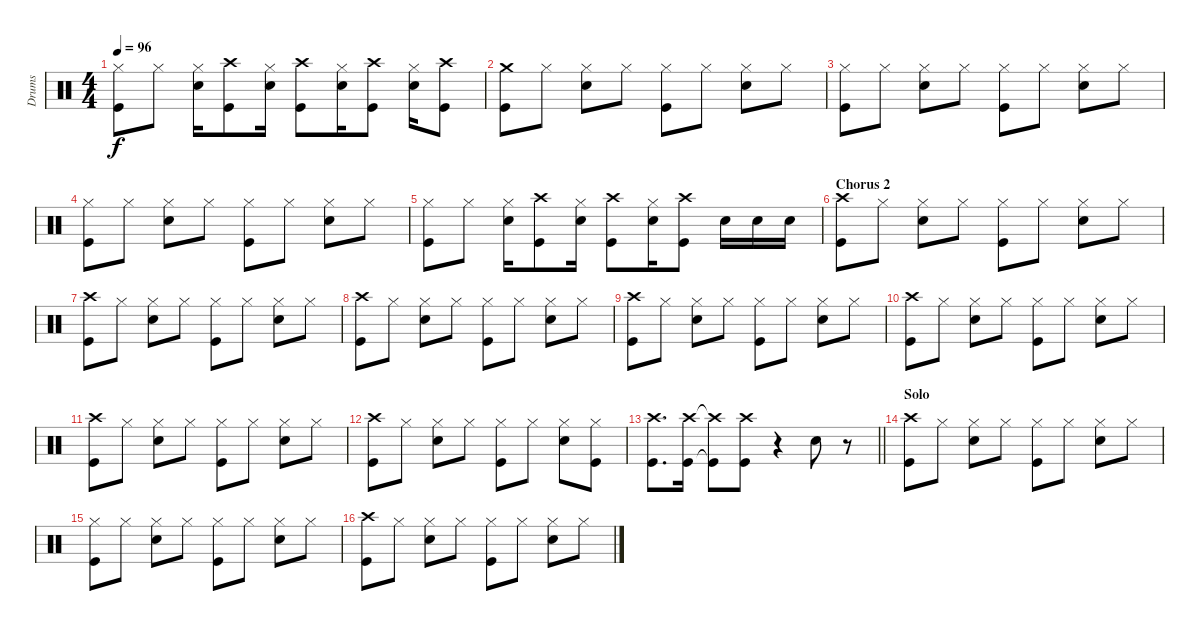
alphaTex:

\track ("Drums" "Drums") {instrument percussion}
\staff {score}
\articulation defaults
\ts (4 4)
\tempo 96
\clef neutral
\ks c
("Hi-Hat (closed)" "Kick (hit)").8{dy f} "Hi-Hat (closed)".8 ("Hi-Hat (closed)" "Electric Snare (hit)").16 ("Crash high (hit)" "Kick (hit)").8 ("Hi-Hat (closed)" "Electric Snare (hit)").16 ("Crash high (hit)" "Kick (hit)").8 ("Hi-Hat (closed)" "Electric Snare (hit)").16 ("Crash high (hit)" "Kick (hit)").8 ("Hi-Hat (closed)" "Electric Snare (hit)").16 ("Crash high (hit)" "Kick (hit)").8 |
("Crash medium (hit)" "Kick (hit)").8 "Hi-Hat (closed)".8 ("Hi-Hat (closed)" "Electric Snare (hit)").8 "Hi-Hat (closed)".8 ("Hi-Hat (closed)" "Kick (hit)").8 "Hi-Hat (closed)".8 ("Hi-Hat (closed)" "Electric Snare (hit)").8 "Hi-Hat (closed)".8 |
("Hi-Hat (closed)" "Kick (hit)").8 "Hi-Hat (closed)".8 ("Hi-Hat (closed)" "Electric Snare (hit)").8 "Hi-Hat (closed)".8 ("Hi-Hat (closed)" "Kick (hit)").8 "Hi-Hat (closed)".8 ("Hi-Hat (closed)" "Electric Snare (hit)").8 "Hi-Hat (closed)".8 |
("Hi-Hat (closed)" "Kick (hit)").8 "Hi-Hat (closed)".8 ("Hi-Hat (closed)" "Electric Snare (hit)").8 "Hi-Hat (closed)".8 ("Hi-Hat (closed)" "Kick (hit)").8 "Hi-Hat (closed)".8 ("Hi-Hat (closed)" "Electric Snare (hit)").8 "Hi-Hat (closed)".8 |
("Hi-Hat (closed)" "Kick (hit)").8 "Hi-Hat (closed)".8 ("Hi-Hat (closed)" "Electric Snare (hit)").16 ("Crash high (hit)" "Kick (hit)").8 ("Hi-Hat (closed)" "Electric Snare (hit)").16 ("Crash high (hit)" "Kick (hit)").8 ("Hi-Hat (closed)" "Electric Snare (hit)").16 ("Crash high (hit)" "Kick (hit)").8 "Electric Snare (hit)".16 "Electric Snare (hit)".16 "Electric Snare (hit)".16 |
\section ("" "Chorus 2")
("Crash high (hit)" "Kick (hit)").8 "Hi-Hat (closed)".8 ("Hi-Hat (closed)" "Electric Snare (hit)").8 "Hi-Hat (closed)".8 ("Hi-Hat (closed)" "Kick (hit)").8 "Hi-Hat (closed)".8 ("Hi-Hat (closed)" "Electric Snare (hit)").8 "Hi-Hat (closed)".8 |
("Crash high (hit)" "Kick (hit)").8 "Hi-Hat (closed)".8 ("Hi-Hat (closed)" "Electric Snare (hit)").8 "Hi-Hat (closed)".8 ("Hi-Hat (closed)" "Kick (hit)").8 "Hi-Hat (closed)".8 ("Hi-Hat (closed)" "Electric Snare (hit)").8 "Hi-Hat (closed)".8 |
("Crash high (hit)" "Kick (hit)").8 "Hi-Hat (closed)".8 ("Hi-Hat (closed)" "Electric Snare (hit)").8 "Hi-Hat (closed)".8 ("Hi-Hat (closed)" "Kick (hit)").8 "Hi-Hat (closed)".8 ("Hi-Hat (closed)" "Electric Snare (hit)").8 "Hi-Hat (closed)".8 |
("Crash high (hit)" "Kick (hit)").8 "Hi-Hat (closed)".8 ("Hi-Hat (closed)" "Electric Snare (hit)").8 "Hi-Hat (closed)".8 ("Hi-Hat (closed)" "Kick (hit)").8 "Hi-Hat (closed)".8 ("Hi-Hat (closed)" "Electric Snare (hit)").8 "Hi-Hat (closed)".8 |
("Crash high (hit)" "Kick (hit)").8 "Hi-Hat (closed)".8 ("Hi-Hat (closed)" "Electric Snare (hit)").8 "Hi-Hat (closed)".8 ("Hi-Hat (closed)" "Kick (hit)").8 "Hi-Hat (closed)".8 ("Hi-Hat (closed)" "Electric Snare (hit)").8 "Hi-Hat (closed)".8 |
("Crash high (hit)" "Kick (hit)").8 "Hi-Hat (closed)".8 ("Hi-Hat (closed)" "Electric Snare (hit)").8 "Hi-Hat (closed)".8 ("Hi-Hat (closed)" "Kick (hit)").8 "Hi-Hat (closed)".8 ("Hi-Hat (closed)" "Electric Snare (hit)").8 "Hi-Hat (closed)".8 |
("Crash high (hit)" "Kick (hit)").8 "Hi-Hat (closed)".8 ("Hi-Hat (closed)" "Electric Snare (hit)").8 "Hi-Hat (closed)".8 ("Hi-Hat (closed)" "Kick (hit)").8 "Hi-Hat (closed)".8 ("Hi-Hat (closed)" "Electric Snare (hit)").8 ("Hi-Hat (closed)" "Kick (hit)").8 |
\barLineRight lightlight
("Crash high (hit)" "Kick (hit)").8{d} ("Crash high (hit)" "Kick (hit)").16 ("Crash high (hit)"{t} "Kick (hit)"{t}).8 ("Crash high (hit)" "Kick (hit)").8 r.4 "Electric Snare (hit)".8 r.8 |
\section ("" "Solo")
("Crash high (hit)" "Kick (hit)").8 "Hi-Hat (closed)".8 ("Hi-Hat (closed)" "Electric Snare (hit)").8 "Hi-Hat (closed)".8 ("Hi-Hat (closed)" "Kick (hit)").8 "Hi-Hat (closed)".8 ("Hi-Hat (closed)" "Electric Snare (hit)").8 "Hi-Hat (closed)".8 |
("Hi-Hat (closed)" "Kick (hit)").8 "Hi-Hat (closed)".8 ("Hi-Hat (closed)" "Electric Snare (hit)").8 "Hi-Hat (closed)".8 ("Hi-Hat (closed)" "Kick (hit)").8 "Hi-Hat (closed)".8 ("Hi-Hat (closed)" "Electric Snare (hit)").8 "Hi-Hat (closed)".8 |
("Crash high (hit)" "Kick (hit)").8 "Hi-Hat (closed)".8 ("Hi-Hat (closed)" "Electric Snare (hit)").8 "Hi-Hat (closed)".8 ("Hi-Hat (closed)" "Kick (hit)").8 "Hi-Hat (closed)".8 ("Hi-Hat (closed)" "Electric Snare (hit)").8 "Hi-Hat (closed)".8
